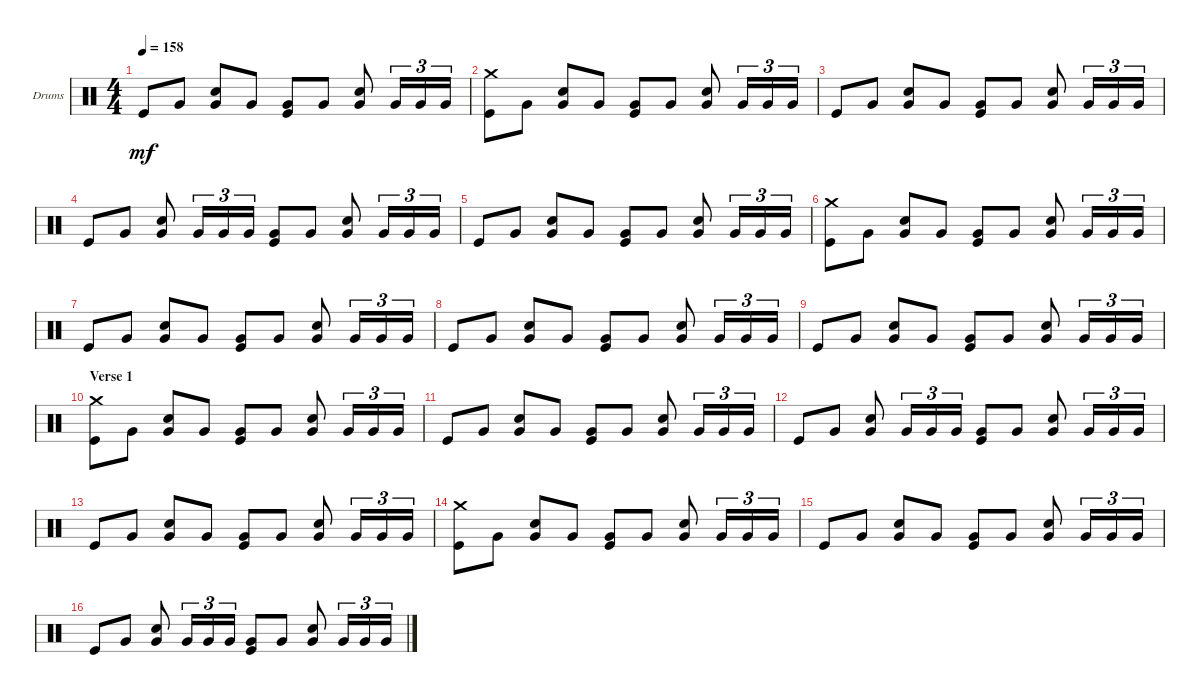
\defaultSystemsLayout 4
\bracketExtendMode groupsimilarinstruments
\firstSystemTrackNameOrientation horizontal
\otherSystemsTrackNameOrientation horizontal
\track ("Drums" "Drums") {instrument percussion}
\staff {score}
\articulation defaults
\ts (4 4)
\tempo 158
\clef neutral
\ks c "Kick (hit)".8{dy mf} "Very Low Tom (hit)".8
("Very Low Tom (hit)" "Snare (hit) 2").8 "Very Low Tom (hit)".8 ("Very Low Tom (hit)" "Kick (hit)").8 "Very Low Tom (hit)".8 ("Very Low Tom (hit)" "Snare (hit) 2").8 "Very Low Tom (hit)".16{tu (3 2)} "Very Low Tom (hit)".16{tu (3 2)} "Very Low Tom (hit)".16{tu (3 2)} |
("Crash medium (hit)" "Kick (hit)").8 "Very Low Tom (hit)".8 ("Very Low Tom (hit)" "Snare (hit) 2").8 "Very Low Tom (hit)".8 ("Very Low Tom (hit)" "Kick (hit)").8 "Very Low Tom (hit)".8 ("Very Low Tom (hit)" "Snare (hit) 2").8 "Very Low Tom (hit)".16{tu (3 2)} "Very Low Tom (hit)".16{tu (3 2)} "Very Low Tom (hit)".16{tu (3 2)} |
"Kick (hit)".8 "Very Low Tom (hit)".8 ("Very Low Tom (hit)" "Snare (hit) 2").8 "Very Low Tom (hit)".8 ("Very Low Tom (hit)" "Kick (hit)").8 "Very Low Tom (hit)".8 ("Very Low Tom (hit)" "Snare (hit) 2").8 "Very Low Tom (hit)".16{tu (3 2)} "Very Low Tom (hit)".16{tu (3 2)} "Very Low Tom (hit)".16{tu (3 2)} |
"Kick (hit)".8 "Very Low Tom (hit)".8 ("Very Low Tom (hit)" "Snare (hit) 2").8 "Very Low Tom (hit)".16{tu (3 2)} "Very Low Tom (hit)".16{tu (3 2)} "Very Low Tom (hit)".16{tu (3 2)} ("Very Low Tom (hit)" "Kick (hit)").8 "Very Low Tom (hit)".8 ("Very Low Tom (hit)" "Snare (hit) 2").8 "Very Low Tom (hit)".16{tu (3 2)} "Very Low Tom (hit)".16{tu (3 2)} "Very Low Tom (hit)".16{tu (3 2)} |
"Kick (hit)".8 "Very Low Tom (hit)".8 ("Very Low Tom (hit)" "Snare (hit) 2").8 "Very Low Tom (hit)".8 ("Very Low Tom (hit)" "Kick (hit)").8 "Very Low Tom (hit)".8 ("Very Low Tom (hit)" "Snare (hit) 2").8 "Very Low Tom (hit)".16{tu (3 2)} "Very Low Tom (hit)".16{tu (3 2)} "Very Low Tom (hit)".16{tu (3 2)} |
("Crash medium (hit)" "Kick (hit)").8 "Very Low Tom (hit)".8 ("Very Low Tom (hit)" "Snare (hit) 2").8 "Very Low Tom (hit)".8 ("Very Low Tom (hit)" "Kick (hit)").8 "Very Low Tom (hit)".8 ("Very Low Tom (hit)" "Snare (hit) 2").8 "Very Low Tom (hit)".16{tu (3 2)} "Very Low Tom (hit)".16{tu (3 2)} "Very Low Tom (hit)".16{tu (3 2)} |
"Kick (hit)".8 "Very Low Tom (hit)".8 ("Very Low Tom (hit)" "Snare (hit) 2").8 "Very Low Tom (hit)".8 ("Very Low Tom (hit)" "Kick (hit)").8 "Very Low Tom (hit)".8 ("Very Low Tom (hit)" "Snare (hit) 2").8 "Very Low Tom (hit)".16{tu (3 2)} "Very Low Tom (hit)".16{tu (3 2)} "Very Low Tom (hit)".16{tu (3 2)} |
"Kick (hit)".8 "Very Low Tom (hit)".8 ("Very Low Tom (hit)" "Snare (hit) 2").8 "Very Low Tom (hit)".8 ("Very Low Tom (hit)" "Kick (hit)").8 "Very Low Tom (hit)".8 ("Very Low Tom (hit)" "Snare (hit) 2").8 "Very Low Tom (hit)".16{tu (3 2)} "Very Low Tom (hit)".16{tu (3 2)} "Very Low Tom (hit)".16{tu (3 2)} |
"Kick (hit)".8 "Very Low Tom (hit)".8 ("Very Low Tom (hit)" "Snare (hit) 2").8 "Very Low Tom (hit)".8 ("Very Low Tom (hit)" "Kick (hit)").8 "Very Low Tom (hit)".8 ("Very Low Tom (hit)" "Snare (hit) 2").8 "Very Low Tom (hit)".16{tu (3 2)} "Very Low Tom (hit)".16{tu (3 2)} "Very Low Tom (hit)".16{tu (3 2)} |
\section ("" "Verse 1")
("Crash medium (hit)" "Kick (hit)").8 "Very Low Tom (hit)".8 ("Very Low Tom (hit)" "Snare (hit) 2").8 "Very Low Tom (hit)".8 ("Very Low Tom (hit)" "Kick (hit)").8 "Very Low Tom (hit)".8 ("Very Low Tom (hit)" "Snare (hit) 2").8 "Very Low Tom (hit)".16{tu (3 2)} "Very Low Tom (hit)".16{tu (3 2)} "Very Low Tom (hit)".16{tu (3 2)} |
"Kick (hit)".8 "Very Low Tom (hit)".8 ("Very Low Tom (hit)" "Snare (hit) 2").8 "Very Low Tom (hit)".8 ("Very Low Tom (hit)" "Kick (hit)").8 "Very Low Tom (hit)".8 ("Very Low Tom (hit)" "Snare (hit) 2").8 "Very Low Tom (hit)".16{tu (3 2)} "Very Low Tom (hit)".16{tu (3 2)} "Very Low Tom (hit)".16{tu (3 2)} |
"Kick (hit)".8 "Very Low Tom (hit)".8 ("Very Low Tom (hit)" "Snare (hit) 2").8 "Very Low Tom (hit)".16{tu (3 2)} "Very Low Tom (hit)".16{tu (3 2)} "Very Low Tom (hit)".16{tu (3 2)} ("Very Low Tom (hit)" "Kick (hit)").8 "Very Low Tom (hit)".8 ("Very Low Tom (hit)" "Snare (hit) 2").8 "Very Low Tom (hit)".16{tu (3 2)} "Very Low Tom (hit)".16{tu (3 2)} "Very Low Tom (hit)".16{tu (3 2)} |
"Kick (hit)".8 "Very Low Tom (hit)".8 ("Very Low Tom (hit)" "Snare (hit) 2").8 "Very Low Tom (hit)".8 ("Very Low Tom (hit)" "Kick (hit)").8 "Very Low Tom (hit)".8 ("Very Low Tom (hit)" "Snare (hit) 2").8 "Very Low Tom (hit)".16{tu (3 2)} "Very Low Tom (hit)".16{tu (3 2)} "Very Low Tom (hit)".16{tu (3 2)} |
("Crash medium (hit)" "Kick (hit)").8 "Very Low Tom (hit)".8 ("Very Low Tom (hit)" "Snare (hit) 2").8 "Very Low Tom (hit)".8 ("Very Low Tom (hit)" "Kick (hit)").8 "Very Low Tom (hit)".8 ("Very Low Tom (hit)" "Snare (hit) 2").8 "Very Low Tom (hit)".16{tu (3 2)} "Very Low Tom (hit)".16{tu (3 2)} "Very Low Tom (hit)".16{tu (3 2)} |
"Kick (hit)".8 "Very Low Tom (hit)".8 ("Very Low Tom (hit)" "Snare (hit) 2").8 "Very Low Tom (hit)".8 ("Very Low Tom (hit)" "Kick (hit)").8 "Very Low Tom (hit)".8 ("Very Low Tom (hit)" "Snare (hit) 2").8 "Very Low Tom (hit)".16{tu (3 2)} "Very Low Tom (hit)".16{tu (3 2)} "Very Low Tom (hit)".16{tu (3 2)} |
"Kick (hit)".8 "Very Low Tom (hit)".8 ("Very Low Tom (hit)" "Snare (hit) 2").8 "Very Low Tom (hit)".16{tu (3 2)} "Very Low Tom (hit)".16{tu (3 2)} "Very Low Tom (hit)".16{tu (3 2)} ("Very Low Tom (hit)" "Kick (hit)").8 "Very Low Tom (hit)".8 ("Very Low Tom (hit)" "Snare (hit) 2").8 "Very Low Tom (hit)".16{tu (3 2)} "Very Low Tom (hit)".16{tu (3 2)} "Very Low Tom (hit)".16{tu (3 2)}
